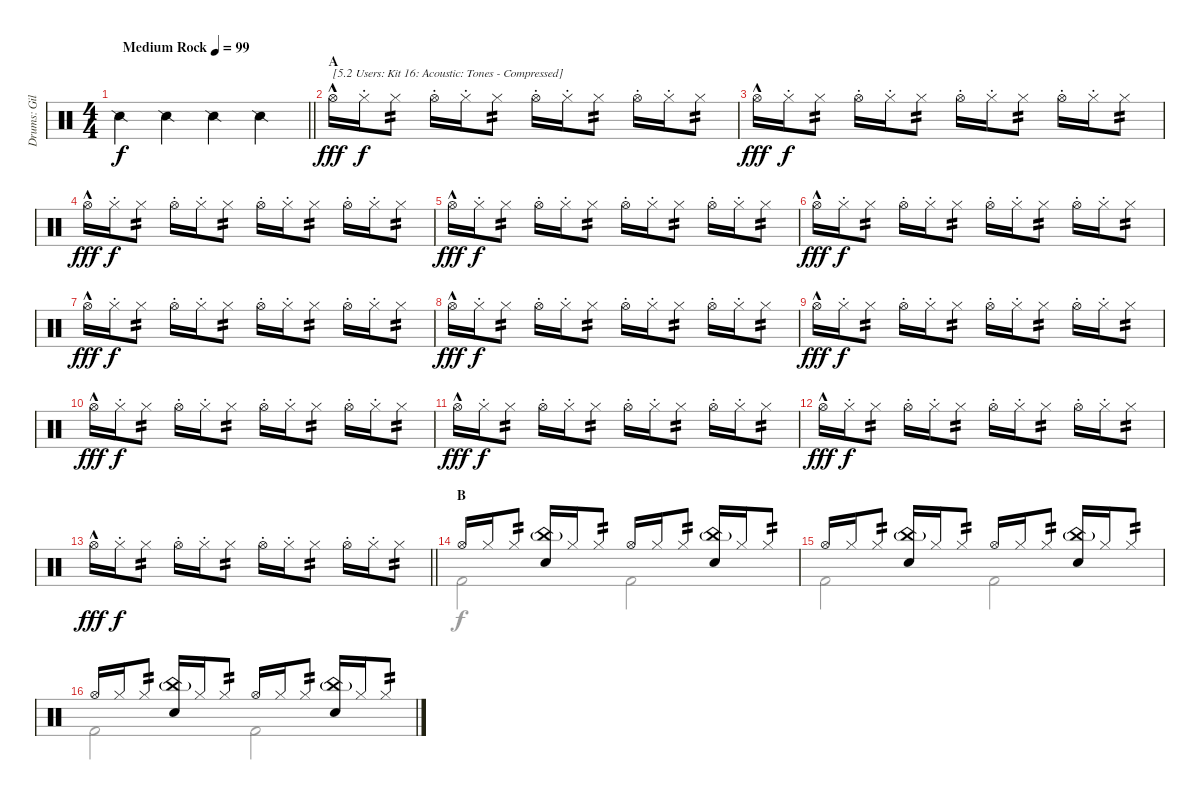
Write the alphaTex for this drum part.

\track ("Drums: Gil" "Drums: Gil") {instrument percussion}
\staff {score}
\articulation defaults
\voice
\ts (4 4)
\tempo (99 "Medium Rock")
\clef neutral
\barLineRight lightlight
\ks c "Snare (side stick) 2".4{dy f} "Snare (side stick) 2".4 "Snare (side stick) 2".4 "Snare (side stick) 2".4
|
\section ("" "A")
"Hi-Hat (open)"{hac}.16{txt "[5.2 Users: Kit 16: Acoustic: Tones - Compressed]" dy fff} "Hi-Hat (closed)"{st}.16{dy f} "Hi-Hat (closed)".8{tp 2} "Hi-Hat (open)"{st}.16 "Hi-Hat (closed)"{st}.16 "Hi-Hat (closed)".8{tp 2} "Hi-Hat (open)"{st}.16 "Hi-Hat (closed)"{st}.16 "Hi-Hat (closed)".8{tp 2} "Hi-Hat (open)"{st}.16 "Hi-Hat (closed)"{st}.16 "Hi-Hat (closed)".8{tp 2} |
"Hi-Hat (open)"{hac}.16{dy fff} "Hi-Hat (closed)"{st}.16{dy f} "Hi-Hat (closed)".8{tp 2} "Hi-Hat (open)"{st}.16 "Hi-Hat (closed)"{st}.16 "Hi-Hat (closed)".8{tp 2} "Hi-Hat (open)"{st}.16 "Hi-Hat (closed)"{st}.16 "Hi-Hat (closed)".8{tp 2} "Hi-Hat (open)"{st}.16 "Hi-Hat (closed)"{st}.16 "Hi-Hat (closed)".8{tp 2} |
"Hi-Hat (open)"{hac}.16{dy fff} "Hi-Hat (closed)"{st}.16{dy f} "Hi-Hat (closed)".8{tp 2} "Hi-Hat (open)"{st}.16 "Hi-Hat (closed)"{st}.16 "Hi-Hat (closed)".8{tp 2} "Hi-Hat (open)"{st}.16 "Hi-Hat (closed)"{st}.16 "Hi-Hat (closed)".8{tp 2} "Hi-Hat (open)"{st}.16 "Hi-Hat (closed)"{st}.16 "Hi-Hat (closed)".8{tp 2} |
"Hi-Hat (open)"{hac}.16{dy fff} "Hi-Hat (closed)"{st}.16{dy f} "Hi-Hat (closed)".8{tp 2} "Hi-Hat (open)"{st}.16 "Hi-Hat (closed)"{st}.16 "Hi-Hat (closed)".8{tp 2} "Hi-Hat (open)"{st}.16 "Hi-Hat (closed)"{st}.16 "Hi-Hat (closed)".8{tp 2} "Hi-Hat (open)"{st}.16 "Hi-Hat (closed)"{st}.16 "Hi-Hat (closed)".8{tp 2} |
"Hi-Hat (open)"{hac}.16{dy fff} "Hi-Hat (closed)"{st}.16{dy f} "Hi-Hat (closed)".8{tp 2} "Hi-Hat (open)"{st}.16 "Hi-Hat (closed)"{st}.16 "Hi-Hat (closed)".8{tp 2} "Hi-Hat (open)"{st}.16 "Hi-Hat (closed)"{st}.16 "Hi-Hat (closed)".8{tp 2} "Hi-Hat (open)"{st}.16 "Hi-Hat (closed)"{st}.16 "Hi-Hat (closed)".8{tp 2} |
"Hi-Hat (open)"{hac}.16{dy fff} "Hi-Hat (closed)"{st}.16{dy f} "Hi-Hat (closed)".8{tp 2} "Hi-Hat (open)"{st}.16 "Hi-Hat (closed)"{st}.16 "Hi-Hat (closed)".8{tp 2} "Hi-Hat (open)"{st}.16 "Hi-Hat (closed)"{st}.16 "Hi-Hat (closed)".8{tp 2} "Hi-Hat (open)"{st}.16 "Hi-Hat (closed)"{st}.16 "Hi-Hat (closed)".8{tp 2} |
"Hi-Hat (open)"{hac}.16{dy fff} "Hi-Hat (closed)"{st}.16{dy f} "Hi-Hat (closed)".8{tp 2} "Hi-Hat (open)"{st}.16 "Hi-Hat (closed)"{st}.16 "Hi-Hat (closed)".8{tp 2} "Hi-Hat (open)"{st}.16 "Hi-Hat (closed)"{st}.16 "Hi-Hat (closed)".8{tp 2} "Hi-Hat (open)"{st}.16 "Hi-Hat (closed)"{st}.16 "Hi-Hat (closed)".8{tp 2} |
"Hi-Hat (open)"{hac}.16{dy fff} "Hi-Hat (closed)"{st}.16{dy f} "Hi-Hat (closed)".8{tp 2} "Hi-Hat (open)"{st}.16 "Hi-Hat (closed)"{st}.16 "Hi-Hat (closed)".8{tp 2} "Hi-Hat (open)"{st}.16 "Hi-Hat (closed)"{st}.16 "Hi-Hat (closed)".8{tp 2} "Hi-Hat (open)"{st}.16 "Hi-Hat (closed)"{st}.16 "Hi-Hat (closed)".8{tp 2} |
"Hi-Hat (open)"{hac}.16{dy fff} "Hi-Hat (closed)"{st}.16{dy f} "Hi-Hat (closed)".8{tp 2} "Hi-Hat (open)"{st}.16 "Hi-Hat (closed)"{st}.16 "Hi-Hat (closed)".8{tp 2} "Hi-Hat (open)"{st}.16 "Hi-Hat (closed)"{st}.16 "Hi-Hat (closed)".8{tp 2} "Hi-Hat (open)"{st}.16 "Hi-Hat (closed)"{st}.16 "Hi-Hat (closed)".8{tp 2} |
"Hi-Hat (open)"{hac}.16{dy fff} "Hi-Hat (closed)"{st}.16{dy f} "Hi-Hat (closed)".8{tp 2} "Hi-Hat (open)"{st}.16 "Hi-Hat (closed)"{st}.16 "Hi-Hat (closed)".8{tp 2} "Hi-Hat (open)"{st}.16 "Hi-Hat (closed)"{st}.16 "Hi-Hat (closed)".8{tp 2} "Hi-Hat (open)"{st}.16 "Hi-Hat (closed)"{st}.16 "Hi-Hat (closed)".8{tp 2} |
"Hi-Hat (open)"{hac}.16{dy fff} "Hi-Hat (closed)"{st}.16{dy f} "Hi-Hat (closed)".8{tp 2} "Hi-Hat (open)"{st}.16 "Hi-Hat (closed)"{st}.16 "Hi-Hat (closed)".8{tp 2} "Hi-Hat (open)"{st}.16 "Hi-Hat (closed)"{st}.16 "Hi-Hat (closed)".8{tp 2} "Hi-Hat (open)"{st}.16 "Hi-Hat (closed)"{st}.16 "Hi-Hat (closed)".8{tp 2} |
\barLineRight lightlight "Hi-Hat (open)"{hac}.16{dy fff} "Hi-Hat (closed)"{st}.16{dy f} "Hi-Hat (closed)".8{tp 2} "Hi-Hat (open)"{st}.16 "Hi-Hat (closed)"{st}.16 "Hi-Hat (closed)".8{tp 2} "Hi-Hat (open)"{st}.16 "Hi-Hat (closed)"{st}.16 "Hi-Hat (closed)".8{tp 2} "Hi-Hat (open)"{st}.16 "Hi-Hat (closed)"{st}.16 "Hi-Hat (closed)".8{tp 2}
|
\section ("" "B")
"Hi-Hat (open)".16 "Hi-Hat (closed)".16 "Hi-Hat (closed)".8{tp 2} ("China (hit)"{g} "Snare (hit) 2").16 "Hi-Hat (closed)".16 "Hi-Hat (closed)".8{tp 2} "Hi-Hat (open)".16 "Hi-Hat (closed)".16 "Hi-Hat (closed)".8{tp 2} ("China (hit)"{g} "Snare (hit) 2").16 "Hi-Hat (closed)".16 "Hi-Hat (closed)".8{tp 2} |
"Hi-Hat (open)".16 "Hi-Hat (closed)".16 "Hi-Hat (closed)".8{tp 2} ("China (hit)"{g} "Snare (hit) 2").16 "Hi-Hat (closed)".16 "Hi-Hat (closed)".8{tp 2} "Hi-Hat (open)".16 "Hi-Hat (closed)".16 "Hi-Hat (closed)".8{tp 2} ("China (hit)"{g} "Snare (hit) 2").16 "Hi-Hat (closed)".16 "Hi-Hat (closed)".8{tp 2} |
"Hi-Hat (open)".16 "Hi-Hat (closed)".16 "Hi-Hat (closed)".8{tp 2} ("China (hit)"{g} "Snare (hit) 2").16 "Hi-Hat (closed)".16 "Hi-Hat (closed)".8{tp 2} "Hi-Hat (open)".16 "Hi-Hat (closed)".16 "Hi-Hat (closed)".8{tp 2} ("China (hit)"{g} "Snare (hit) 2").16 "Hi-Hat (closed)".16 "Hi-Hat (closed)".8{tp 2}
\voice
\clef neutral
\ottava regular
\simile none
\barLineRight lightlight
\ks c
|
|
|
|
|
|
|
|
|
|
|
|
\barLineRight lightlight
|
"Kick (hit) 2".2 "Kick (hit) 2".2 |
"Kick (hit) 2".2 "Kick (hit) 2".2 |
"Kick (hit) 2".2 "Kick (hit) 2".2
